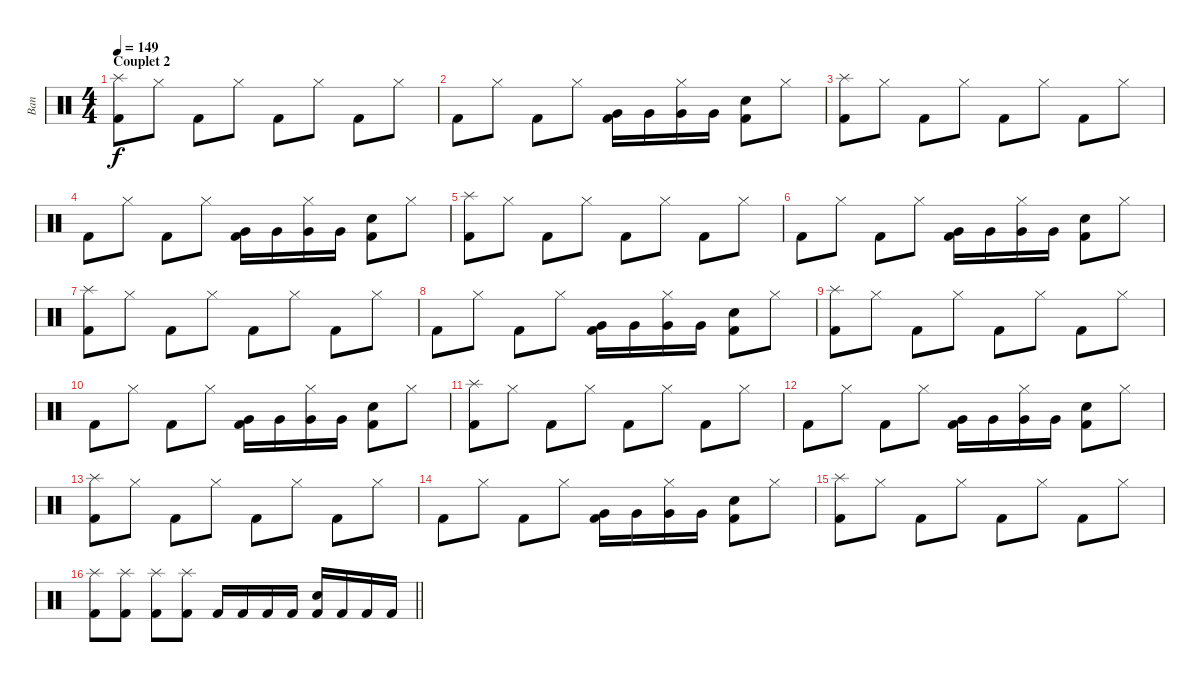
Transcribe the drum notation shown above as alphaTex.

\track ("Ban" "Ban") {instrument percussion}
\staff {score}
\articulation defaults
\ts (4 4)
\section ("" "Couplet 2")
\tempo 149
\clef neutral
\ks c
("Splash (hit)" "Kick (hit) 2").8{dy f} "Hi-Hat (closed)".8 "Kick (hit) 2".8 "Hi-Hat (closed)".8 "Kick (hit) 2".8 "Hi-Hat (closed)".8 "Kick (hit) 2".8 "Hi-Hat (closed)".8 |
"Kick (hit) 2".8 "Hi-Hat (closed)".8 "Kick (hit) 2".8 "Hi-Hat (closed)".8 ("Very Low Tom (hit)" "Kick (hit) 2").16 "Very Low Tom (hit)".16 ("Hi-Hat (closed)" "Very Low Tom (hit)").16 "Very Low Tom (hit)".16 ("Electric Snare (hit)" "Kick (hit) 2").8 "Hi-Hat (closed)".8 |
("Splash (hit)" "Kick (hit) 2").8 "Hi-Hat (closed)".8 "Kick (hit) 2".8 "Hi-Hat (closed)".8 "Kick (hit) 2".8 "Hi-Hat (closed)".8 "Kick (hit) 2".8 "Hi-Hat (closed)".8 |
"Kick (hit) 2".8 "Hi-Hat (closed)".8 "Kick (hit) 2".8 "Hi-Hat (closed)".8 ("Very Low Tom (hit)" "Kick (hit) 2").16 "Very Low Tom (hit)".16 ("Hi-Hat (closed)" "Very Low Tom (hit)").16 "Very Low Tom (hit)".16 ("Electric Snare (hit)" "Kick (hit) 2").8 "Hi-Hat (closed)".8 |
("Splash (hit)" "Kick (hit) 2").8 "Hi-Hat (closed)".8 "Kick (hit) 2".8 "Hi-Hat (closed)".8 "Kick (hit) 2".8 "Hi-Hat (closed)".8 "Kick (hit) 2".8 "Hi-Hat (closed)".8 |
"Kick (hit) 2".8 "Hi-Hat (closed)".8 "Kick (hit) 2".8 "Hi-Hat (closed)".8 ("Very Low Tom (hit)" "Kick (hit) 2").16 "Very Low Tom (hit)".16 ("Hi-Hat (closed)" "Very Low Tom (hit)").16 "Very Low Tom (hit)".16 ("Electric Snare (hit)" "Kick (hit) 2").8 "Hi-Hat (closed)".8 |
("Splash (hit)" "Kick (hit) 2").8 "Hi-Hat (closed)".8 "Kick (hit) 2".8 "Hi-Hat (closed)".8 "Kick (hit) 2".8 "Hi-Hat (closed)".8 "Kick (hit) 2".8 "Hi-Hat (closed)".8 |
"Kick (hit) 2".8 "Hi-Hat (closed)".8 "Kick (hit) 2".8 "Hi-Hat (closed)".8 ("Very Low Tom (hit)" "Kick (hit) 2").16 "Very Low Tom (hit)".16 ("Hi-Hat (closed)" "Very Low Tom (hit)").16 "Very Low Tom (hit)".16 ("Electric Snare (hit)" "Kick (hit) 2").8 "Hi-Hat (closed)".8 |
("Splash (hit)" "Kick (hit) 2").8 "Hi-Hat (closed)".8 "Kick (hit) 2".8 "Hi-Hat (closed)".8 "Kick (hit) 2".8 "Hi-Hat (closed)".8 "Kick (hit) 2".8 "Hi-Hat (closed)".8 |
"Kick (hit) 2".8 "Hi-Hat (closed)".8 "Kick (hit) 2".8 "Hi-Hat (closed)".8 ("Very Low Tom (hit)" "Kick (hit) 2").16 "Very Low Tom (hit)".16 ("Hi-Hat (closed)" "Very Low Tom (hit)").16 "Very Low Tom (hit)".16 ("Electric Snare (hit)" "Kick (hit) 2").8 "Hi-Hat (closed)".8 |
("Splash (hit)" "Kick (hit) 2").8 "Hi-Hat (closed)".8 "Kick (hit) 2".8 "Hi-Hat (closed)".8 "Kick (hit) 2".8 "Hi-Hat (closed)".8 "Kick (hit) 2".8 "Hi-Hat (closed)".8 |
"Kick (hit) 2".8 "Hi-Hat (closed)".8 "Kick (hit) 2".8 "Hi-Hat (closed)".8 ("Very Low Tom (hit)" "Kick (hit) 2").16 "Very Low Tom (hit)".16 ("Hi-Hat (closed)" "Very Low Tom (hit)").16 "Very Low Tom (hit)".16 ("Electric Snare (hit)" "Kick (hit) 2").8 "Hi-Hat (closed)".8 |
("Splash (hit)" "Kick (hit) 2").8 "Hi-Hat (closed)".8 "Kick (hit) 2".8 "Hi-Hat (closed)".8 "Kick (hit) 2".8 "Hi-Hat (closed)".8 "Kick (hit) 2".8 "Hi-Hat (closed)".8 |
"Kick (hit) 2".8 "Hi-Hat (closed)".8 "Kick (hit) 2".8 "Hi-Hat (closed)".8 ("Very Low Tom (hit)" "Kick (hit) 2").16 "Very Low Tom (hit)".16 ("Hi-Hat (closed)" "Very Low Tom (hit)").16 "Very Low Tom (hit)".16 ("Electric Snare (hit)" "Kick (hit) 2").8 "Hi-Hat (closed)".8 |
("Splash (hit)" "Kick (hit) 2").8 "Hi-Hat (closed)".8 "Kick (hit) 2".8 "Hi-Hat (closed)".8 "Kick (hit) 2".8 "Hi-Hat (closed)".8 "Kick (hit) 2".8 "Hi-Hat (closed)".8 |
\barLineRight lightlight
("Splash (hit)" "Kick (hit) 2").8 ("Splash (hit)" "Kick (hit) 2").8 ("Splash (hit)" "Kick (hit) 2").8 ("Splash (hit)" "Kick (hit) 2").8 "Kick (hit) 2".16 "Kick (hit) 2".16 "Kick (hit) 2".16 "Kick (hit) 2".16 ("Electric Snare (hit)" "Kick (hit) 2").16 "Kick (hit) 2".16 "Kick (hit) 2".16 "Kick (hit) 2".16
